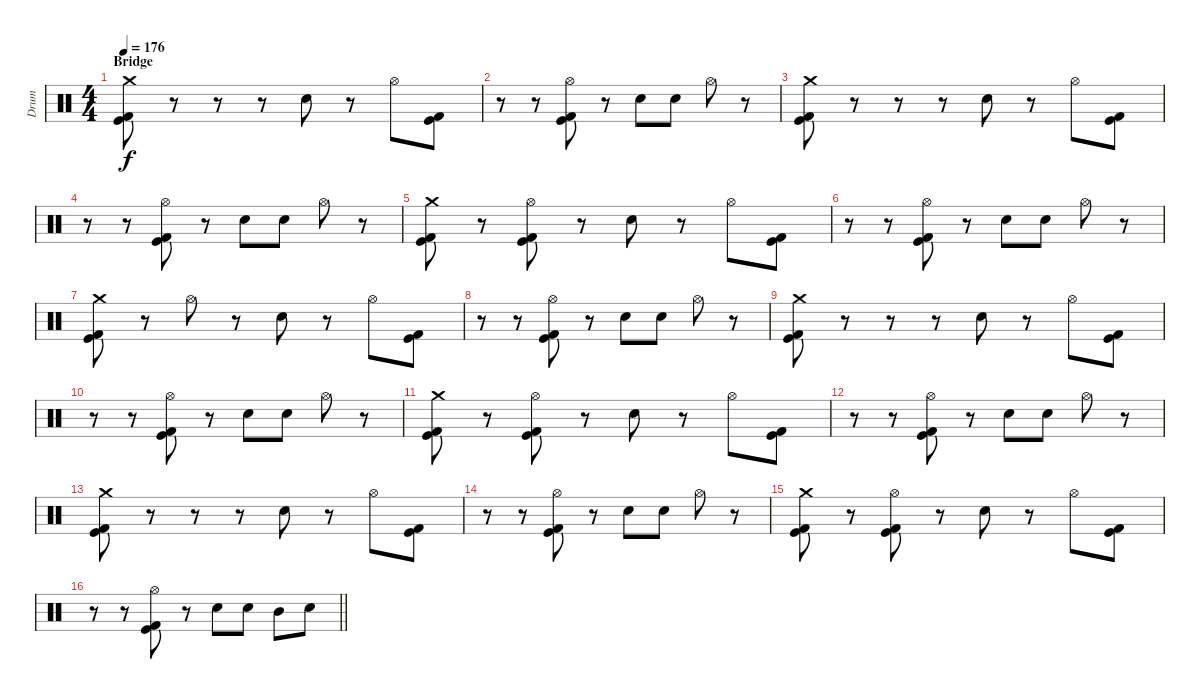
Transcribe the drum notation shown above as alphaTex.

\track ("Drum" "Drum") {instrument percussion}
\staff {score}
\articulation defaults
\ts (4 4)
\section ("" "Bridge")
\tempo 176
\clef neutral
\ks c
("Crash medium (hit)" "Kick (hit)" "Kick (hit) 2").8{dy f} r.8 r.8 r.8 "Electric Snare (hit)".8 r.8 "Hi-Hat (open)".8 ("Kick (hit)" "Kick (hit) 2").8 |
r.8 r.8 ("Hi-Hat (open)" "Kick (hit)" "Kick (hit) 2").8 r.8 "Electric Snare (hit)".8 "Electric Snare (hit)".8 "Hi-Hat (open)".8 r.8 |
("Crash medium (hit)" "Kick (hit)" "Kick (hit) 2").8 r.8 r.8 r.8 "Electric Snare (hit)".8 r.8 "Hi-Hat (open)".8 ("Kick (hit)" "Kick (hit) 2").8 |
r.8 r.8 ("Hi-Hat (open)" "Kick (hit)" "Kick (hit) 2").8 r.8 "Electric Snare (hit)".8 "Electric Snare (hit)".8 "Hi-Hat (open)".8 r.8 |
("Crash medium (hit)" "Kick (hit)" "Kick (hit) 2").8 r.8 ("Hi-Hat (open)" "Kick (hit)" "Kick (hit) 2").8 r.8 "Electric Snare (hit)".8 r.8 "Hi-Hat (open)".8 ("Kick (hit)" "Kick (hit) 2").8 |
r.8 r.8 ("Hi-Hat (open)" "Kick (hit)" "Kick (hit) 2").8 r.8 "Electric Snare (hit)".8 "Electric Snare (hit)".8 "Hi-Hat (open)".8 r.8 |
("Crash medium (hit)" "Kick (hit)" "Kick (hit) 2").8 r.8 "Hi-Hat (open)".8 r.8 "Electric Snare (hit)".8 r.8 "Hi-Hat (open)".8 ("Kick (hit)" "Kick (hit) 2").8 |
r.8 r.8 ("Hi-Hat (open)" "Kick (hit)" "Kick (hit) 2").8 r.8 "Electric Snare (hit)".8 "Electric Snare (hit)".8 "Hi-Hat (open)".8 r.8 |
("Crash medium (hit)" "Kick (hit)" "Kick (hit) 2").8 r.8 r.8 r.8 "Electric Snare (hit)".8 r.8 "Hi-Hat (open)".8 ("Kick (hit)" "Kick (hit) 2").8 |
r.8 r.8 ("Hi-Hat (open)" "Kick (hit)" "Kick (hit) 2").8 r.8 "Electric Snare (hit)".8 "Electric Snare (hit)".8 "Hi-Hat (open)".8 r.8 |
("Crash medium (hit)" "Kick (hit)" "Kick (hit) 2").8 r.8 ("Hi-Hat (open)" "Kick (hit)" "Kick (hit) 2").8 r.8 "Electric Snare (hit)".8 r.8 "Hi-Hat (open)".8 ("Kick (hit)" "Kick (hit) 2").8 |
r.8 r.8 ("Hi-Hat (open)" "Kick (hit)" "Kick (hit) 2").8 r.8 "Electric Snare (hit)".8 "Electric Snare (hit)".8 "Hi-Hat (open)".8 r.8 |
("Crash medium (hit)" "Kick (hit)" "Kick (hit) 2").8 r.8 r.8 r.8 "Electric Snare (hit)".8 r.8 "Hi-Hat (open)".8 ("Kick (hit)" "Kick (hit) 2").8 |
r.8 r.8 ("Hi-Hat (open)" "Kick (hit)" "Kick (hit) 2").8 r.8 "Electric Snare (hit)".8 "Electric Snare (hit)".8 "Hi-Hat (open)".8 r.8 |
("Crash medium (hit)" "Kick (hit)" "Kick (hit) 2").8 r.8 ("Hi-Hat (open)" "Kick (hit)" "Kick (hit) 2").8 r.8 "Electric Snare (hit)".8 r.8 "Hi-Hat (open)".8 ("Kick (hit)" "Kick (hit) 2").8 |
\barLineRight lightlight
r.8 r.8 ("Hi-Hat (open)" "Kick (hit)" "Kick (hit) 2").8 r.8 "Electric Snare (hit)".8 "Electric Snare (hit)".8 "Mid Tom (hit)".8 "Electric Snare (hit)".8
